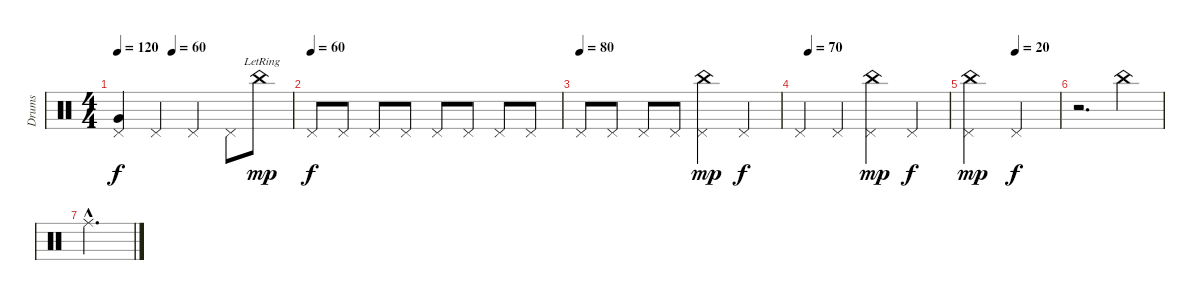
\track ("Drums" "Drums") {instrument percussion}
\staff {score}
\articulation defaults
\ts (4 4)
\tempo 120
\tempo (60 0.3125)
\clef neutral
\ks c
("Pedal Hi-Hat (hit)" "Very Low Tom (hit)").4{dy f} "Pedal Hi-Hat (hit)".4 "Pedal Hi-Hat (hit)".4 "Pedal Hi-Hat (hit)".8 "China (hit)"{lr}.8{dy mp} |
\tempo (60)
"Pedal Hi-Hat (hit)".8{dy f} "Pedal Hi-Hat (hit)".8 "Pedal Hi-Hat (hit)".8 "Pedal Hi-Hat (hit)".8 "Pedal Hi-Hat (hit)".8 "Pedal Hi-Hat (hit)".8 "Pedal Hi-Hat (hit)".8 "Pedal Hi-Hat (hit)".8 |
\tempo (80)
"Pedal Hi-Hat (hit)".8 "Pedal Hi-Hat (hit)".8 "Pedal Hi-Hat (hit)".8 "Pedal Hi-Hat (hit)".8 ("Pedal Hi-Hat (hit)" "China (hit)").4{dy mp} "Pedal Hi-Hat (hit)".4{dy f} |
\tempo (70 0.0625)
"Pedal Hi-Hat (hit)".4 "Pedal Hi-Hat (hit)".4 ("Pedal Hi-Hat (hit)" "China (hit)").4{dy mp} "Pedal Hi-Hat (hit)".4{dy f} |
\tempo (20 0.5)
("Pedal Hi-Hat (hit)" "China (hit)").2{dy mp} "Pedal Hi-Hat (hit)".2{dy f} |
r.2{d} "China (hit)".4 |
"Ride (middle)"{hac}.2{d}
